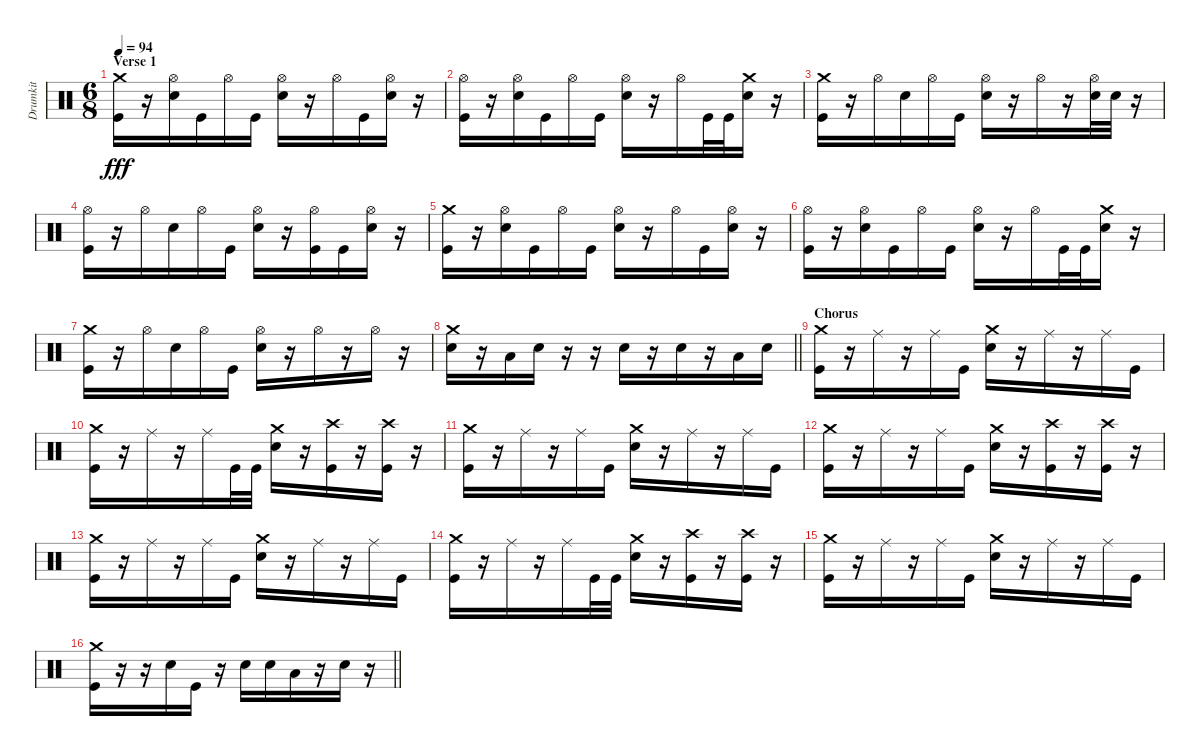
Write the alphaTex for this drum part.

\track ("Drumkit" "Drumkit") {instrument percussion}
\staff {score}
\articulation defaults
\ts (6 8)
\section ("" "Verse 1")
\tempo 94
\clef neutral
\ks c
("Crash medium (hit)" "Kick (hit)").16{dy fff} r.16 ("Hi-Hat (open)" "Snare (hit) 2").16 "Kick (hit)".16 "Hi-Hat (open)".16 "Kick (hit)".16 ("Hi-Hat (open)" "Snare (hit) 2").16 r.16 "Hi-Hat (open)".16 "Kick (hit)".16 ("Hi-Hat (open)" "Snare (hit) 2").16 r.16 |
("Hi-Hat (open)" "Kick (hit)").16 r.16 ("Hi-Hat (open)" "Snare (hit) 2").16 "Kick (hit)".16 "Hi-Hat (open)".16 "Kick (hit)".16 ("Hi-Hat (open)" "Snare (hit) 2").16 r.16 "Hi-Hat (open)".16 "Kick (hit)".32 "Kick (hit)".32 ("Crash medium (hit)" "Snare (hit) 2").16 r.16 |
("Crash medium (hit)" "Kick (hit)").16 r.16 "Hi-Hat (open)".16 "Snare (hit) 2".16 "Hi-Hat (open)".16 "Kick (hit)".16 ("Hi-Hat (open)" "Snare (hit) 2").16 r.16 "Hi-Hat (open)".16 r.16 ("Hi-Hat (open)" "Snare (hit) 2").32 "Snare (hit) 2".32 r.16 |
("Hi-Hat (open)" "Kick (hit)").16 r.16 "Hi-Hat (open)".16 "Snare (hit) 2".16 "Hi-Hat (open)".16 "Kick (hit)".16 ("Hi-Hat (open)" "Snare (hit) 2").16 r.16 ("Hi-Hat (open)" "Kick (hit)").16 "Kick (hit)".16 ("Hi-Hat (open)" "Snare (hit) 2").16 r.16 |
("Crash medium (hit)" "Kick (hit)").16 r.16 ("Hi-Hat (open)" "Snare (hit) 2").16 "Kick (hit)".16 "Hi-Hat (open)".16 "Kick (hit)".16 ("Hi-Hat (open)" "Snare (hit) 2").16 r.16 "Hi-Hat (open)".16 "Kick (hit)".16 ("Hi-Hat (open)" "Snare (hit) 2").16 r.16 |
("Hi-Hat (open)" "Kick (hit)").16 r.16 ("Hi-Hat (open)" "Snare (hit) 2").16 "Kick (hit)".16 "Hi-Hat (open)".16 "Kick (hit)".16 ("Hi-Hat (open)" "Snare (hit) 2").16 r.16 "Hi-Hat (open)".16 "Kick (hit)".32 "Kick (hit)".32 ("Crash medium (hit)" "Snare (hit) 2").16 r.16 |
("Crash medium (hit)" "Kick (hit)").16 r.16 "Hi-Hat (open)".16 "Snare (hit) 2".16 "Hi-Hat (open)".16 "Kick (hit)".16 ("Hi-Hat (open)" "Snare (hit) 2").16 r.16 "Hi-Hat (open)".16 r.16 "Hi-Hat (open)".16 r.16 |
\barLineRight lightlight
("Crash medium (hit)" "Snare (hit) 2").16 r.16 "Low Tom (hit)".16 "Snare (hit) 2".16 r.16 r.16 "Snare (hit) 2".16 r.16 "Snare (hit) 2".16 r.16 "Low Floor Tom (hit)".16 "Snare (hit) 2".16 |
\section ("" "Chorus")
("Crash medium (hit)" "Kick (hit)").16 r.16 "Ride (middle)".16 r.16 "Ride (middle)".16 "Kick (hit)".16 ("Crash medium (hit)" "Snare (hit) 2").16 r.16 "Ride (middle)".16 r.16 "Ride (middle)".16 "Kick (hit)".16 |
("Crash medium (hit)" "Kick (hit)").16 r.16 "Ride (middle)".16 r.16 "Ride (middle)".16 "Kick (hit)".32 "Kick (hit)".32 ("Crash medium (hit)" "Snare (hit) 2").16 r.16 ("Crash high (hit)" "Kick (hit)").16 r.16 ("Crash high (hit)" "Kick (hit)").16 r.16 |
("Crash medium (hit)" "Kick (hit)").16 r.16 "Ride (middle)".16 r.16 "Ride (middle)".16 "Kick (hit)".16 ("Crash medium (hit)" "Snare (hit) 2").16 r.16 "Ride (middle)".16 r.16 "Ride (middle)".16 "Kick (hit)".16 |
("Crash medium (hit)" "Kick (hit)").16 r.16 "Ride (middle)".16 r.16 "Ride (middle)".16 "Kick (hit)".16 ("Crash medium (hit)" "Snare (hit) 2").16 r.16 ("Crash high (hit)" "Kick (hit)").16 r.16 ("Crash high (hit)" "Kick (hit)").16 r.16 |
("Crash medium (hit)" "Kick (hit)").16 r.16 "Ride (middle)".16 r.16 "Ride (middle)".16 "Kick (hit)".16 ("Crash medium (hit)" "Snare (hit) 2").16 r.16 "Ride (middle)".16 r.16 "Ride (middle)".16 "Kick (hit)".16 |
("Crash medium (hit)" "Kick (hit)").16 r.16 "Ride (middle)".16 r.16 "Ride (middle)".16 "Kick (hit)".32 "Kick (hit)".32 ("Crash medium (hit)" "Snare (hit) 2").16 r.16 ("Crash high (hit)" "Kick (hit)").16 r.16 ("Crash high (hit)" "Kick (hit)").16 r.16 |
("Crash medium (hit)" "Kick (hit)").16 r.16 "Ride (middle)".16 r.16 "Ride (middle)".16 "Kick (hit)".16 ("Crash medium (hit)" "Snare (hit) 2").16 r.16 "Ride (middle)".16 r.16 "Ride (middle)".16 "Kick (hit)".16 |
\barLineRight lightlight
("Crash medium (hit)" "Kick (hit)").16 r.16 r.16 "Snare (hit) 2".16 "Kick (hit)".16 r.16 "Snare (hit) 2".16 "Snare (hit) 2".16 "Low Tom (hit)".16 r.16 "Snare (hit) 2".16 r.16
